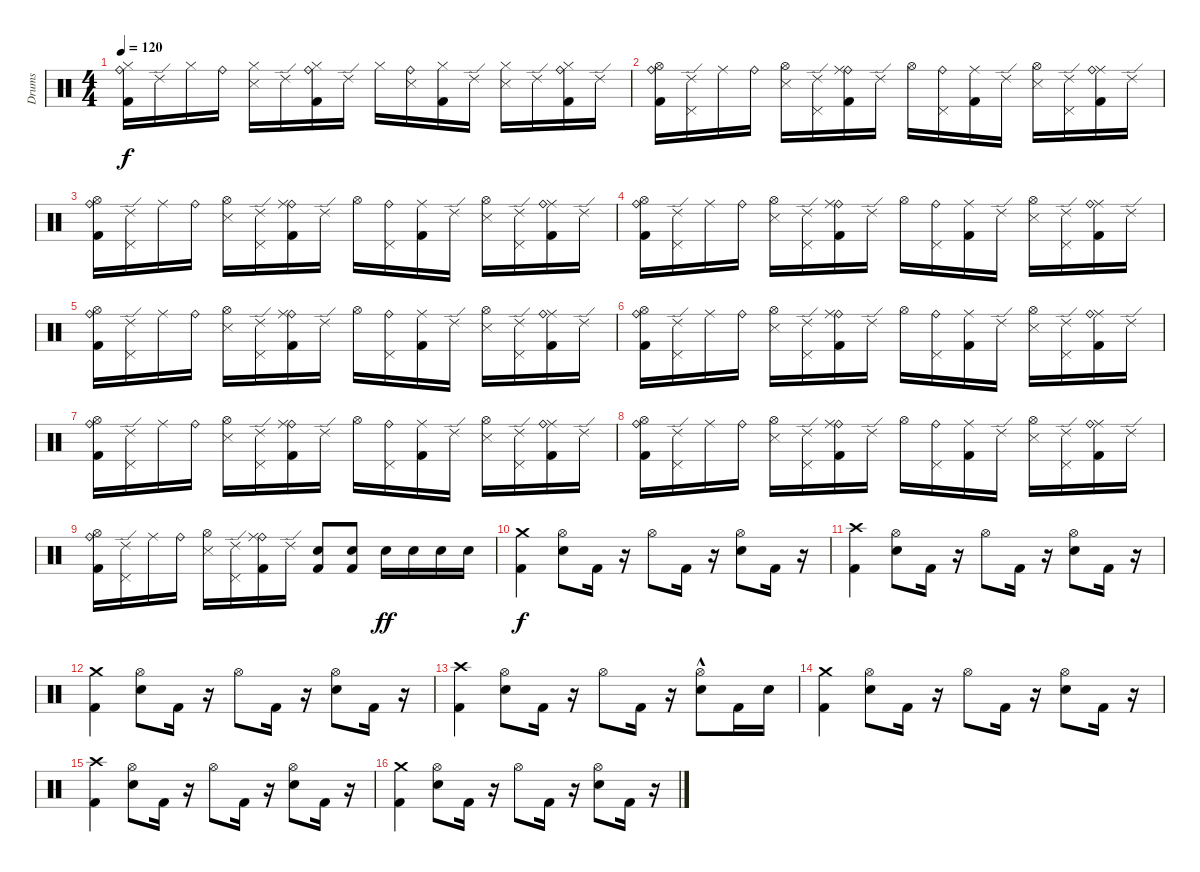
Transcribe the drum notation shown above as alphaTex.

\track ("Drums" "Drums") {instrument percussion}
\staff {score}
\articulation defaults
\ts (4 4)
\tempo 120
\clef neutral
\ks c
("Kick (hit) 2" "Ride (bell)" "Hi-Hat (closed)").16{dy f} "Ride (edge) 2".16 "Hi-Hat (closed)".16 "Ride (bell)".16 ("Snare (side stick) 3" "Hi-Hat (closed)").16 "Ride (edge) 2".16 ("Kick (hit) 2" "Ride (bell)" "Hi-Hat (closed)").16 "Ride (edge) 2".16 "Hi-Hat (closed)".16 ("Snare (side stick) 3" "Ride (bell)").16 ("Kick (hit) 2" "Hi-Hat (closed)").16 "Ride (edge) 2".16 ("Snare (side stick) 3" "Hi-Hat (closed)").16 "Ride (edge) 2".16 ("Kick (hit) 2" "Hi-Hat (closed)" "Ride (bell)").16 "Ride (edge) 2".16 |
("Kick (hit) 2" "Ride (bell)" "Hi-Hat (open)").16 ("Pedal Hi-Hat (hit)" "Ride (edge) 2").16 "Ride (middle)".16 "Ride (bell)".16 ("Snare (side stick) 3" "Hi-Hat (open)").16 ("Pedal Hi-Hat (hit)" "Ride (edge) 2").16 ("Kick (hit) 2" "Ride (bell)" "Ride (middle)").16 "Ride (edge) 2".16 "Hi-Hat (open)".16 ("Pedal Hi-Hat (hit)" "Ride (bell)").16 ("Kick (hit) 2" "Ride (middle)").16 "Ride (edge) 2".16 ("Snare (side stick) 3" "Hi-Hat (open)").16 ("Pedal Hi-Hat (hit)" "Ride (edge) 2").16 ("Kick (hit) 2" "Ride (middle)" "Ride (bell)").16 "Ride (edge) 2".16 |
("Kick (hit) 2" "Ride (bell)" "Hi-Hat (open)").16 ("Pedal Hi-Hat (hit)" "Ride (edge) 2").16 "Ride (middle)".16 "Ride (bell)".16 ("Snare (side stick) 3" "Hi-Hat (open)").16 ("Pedal Hi-Hat (hit)" "Ride (edge) 2").16 ("Kick (hit) 2" "Ride (bell)" "Ride (middle)").16 "Ride (edge) 2".16 "Hi-Hat (open)".16 ("Pedal Hi-Hat (hit)" "Ride (bell)").16 ("Kick (hit) 2" "Ride (middle)").16 "Ride (edge) 2".16 ("Snare (side stick) 3" "Hi-Hat (open)").16 ("Pedal Hi-Hat (hit)" "Ride (edge) 2").16 ("Kick (hit) 2" "Ride (middle)" "Ride (bell)").16 "Ride (edge) 2".16 |
("Kick (hit) 2" "Ride (bell)" "Hi-Hat (open)").16 ("Pedal Hi-Hat (hit)" "Ride (edge) 2").16 "Ride (middle)".16 "Ride (bell)".16 ("Snare (side stick) 3" "Hi-Hat (open)").16 ("Pedal Hi-Hat (hit)" "Ride (edge) 2").16 ("Kick (hit) 2" "Ride (bell)" "Ride (middle)").16 "Ride (edge) 2".16 "Hi-Hat (open)".16 ("Pedal Hi-Hat (hit)" "Ride (bell)").16 ("Kick (hit) 2" "Ride (middle)").16 "Ride (edge) 2".16 ("Snare (side stick) 3" "Hi-Hat (open)").16 ("Pedal Hi-Hat (hit)" "Ride (edge) 2").16 ("Kick (hit) 2" "Ride (middle)" "Ride (bell)").16 "Ride (edge) 2".16 |
("Kick (hit) 2" "Ride (bell)" "Hi-Hat (open)").16 ("Pedal Hi-Hat (hit)" "Ride (edge) 2").16 "Ride (middle)".16 "Ride (bell)".16 ("Snare (side stick) 3" "Hi-Hat (open)").16 ("Pedal Hi-Hat (hit)" "Ride (edge) 2").16 ("Kick (hit) 2" "Ride (bell)" "Ride (middle)").16 "Ride (edge) 2".16 "Hi-Hat (open)".16 ("Pedal Hi-Hat (hit)" "Ride (bell)").16 ("Kick (hit) 2" "Ride (middle)").16 "Ride (edge) 2".16 ("Snare (side stick) 3" "Hi-Hat (open)").16 ("Pedal Hi-Hat (hit)" "Ride (edge) 2").16 ("Kick (hit) 2" "Ride (middle)" "Ride (bell)").16 "Ride (edge) 2".16 |
("Kick (hit) 2" "Ride (bell)" "Hi-Hat (open)").16 ("Pedal Hi-Hat (hit)" "Ride (edge) 2").16 "Ride (middle)".16 "Ride (bell)".16 ("Snare (side stick) 3" "Hi-Hat (open)").16 ("Pedal Hi-Hat (hit)" "Ride (edge) 2").16 ("Kick (hit) 2" "Ride (bell)" "Ride (middle)").16 "Ride (edge) 2".16 "Hi-Hat (open)".16 ("Pedal Hi-Hat (hit)" "Ride (bell)").16 ("Kick (hit) 2" "Ride (middle)").16 "Ride (edge) 2".16 ("Snare (side stick) 3" "Hi-Hat (open)").16 ("Pedal Hi-Hat (hit)" "Ride (edge) 2").16 ("Kick (hit) 2" "Ride (middle)" "Ride (bell)").16 "Ride (edge) 2".16 |
("Kick (hit) 2" "Ride (bell)" "Hi-Hat (open)").16 ("Pedal Hi-Hat (hit)" "Ride (edge) 2").16 "Ride (middle)".16 "Ride (bell)".16 ("Snare (side stick) 3" "Hi-Hat (open)").16 ("Pedal Hi-Hat (hit)" "Ride (edge) 2").16 ("Kick (hit) 2" "Ride (bell)" "Ride (middle)").16 "Ride (edge) 2".16 "Hi-Hat (open)".16 ("Pedal Hi-Hat (hit)" "Ride (bell)").16 ("Kick (hit) 2" "Ride (middle)").16 "Ride (edge) 2".16 ("Snare (side stick) 3" "Hi-Hat (open)").16 ("Pedal Hi-Hat (hit)" "Ride (edge) 2").16 ("Kick (hit) 2" "Ride (middle)" "Ride (bell)").16 "Ride (edge) 2".16 |
("Kick (hit) 2" "Ride (bell)" "Hi-Hat (open)").16 ("Pedal Hi-Hat (hit)" "Ride (edge) 2").16 "Ride (middle)".16 "Ride (bell)".16 ("Snare (side stick) 3" "Hi-Hat (open)").16 ("Pedal Hi-Hat (hit)" "Ride (edge) 2").16 ("Kick (hit) 2" "Ride (bell)" "Ride (middle)").16 "Ride (edge) 2".16 "Hi-Hat (open)".16 ("Pedal Hi-Hat (hit)" "Ride (bell)").16 ("Kick (hit) 2" "Ride (middle)").16 "Ride (edge) 2".16 ("Snare (side stick) 3" "Hi-Hat (open)").16 ("Pedal Hi-Hat (hit)" "Ride (edge) 2").16 ("Kick (hit) 2" "Ride (middle)" "Ride (bell)").16 "Ride (edge) 2".16 |
("Kick (hit) 2" "Ride (bell)" "Hi-Hat (open)").16 ("Pedal Hi-Hat (hit)" "Ride (edge) 2").16 "Ride (middle)".16 "Ride (bell)".16 ("Snare (side stick) 3" "Hi-Hat (open)").16 ("Pedal Hi-Hat (hit)" "Ride (edge) 2").16 ("Kick (hit) 2" "Ride (bell)" "Ride (middle)").16 "Ride (edge) 2".16 ("Kick (hit) 2" "Electric Snare (hit)").8 ("Kick (hit) 2" "Electric Snare (hit)").8 "Electric Snare (hit)".16{dy ff} "Electric Snare (hit)".16 "Electric Snare (hit)".16 "Electric Snare (hit)".16 |
("Crash medium (hit)" "Kick (hit) 2").4{dy f} ("Hi-Hat (open)" "Electric Snare (hit)").8 "Kick (hit) 2".16 r.16 "Hi-Hat (open)".8 "Kick (hit) 2".16 r.16 ("Hi-Hat (open)" "Electric Snare (hit)").8 "Kick (hit) 2".16 r.16 |
("Crash high (hit)" "Kick (hit) 2").4 ("Hi-Hat (open)" "Electric Snare (hit)").8 "Kick (hit) 2".16 r.16 "Hi-Hat (open)".8 "Kick (hit) 2".16 r.16 ("Hi-Hat (open)" "Electric Snare (hit)").8 "Kick (hit) 2".16 r.16 |
("Crash medium (hit)" "Kick (hit) 2").4 ("Hi-Hat (open)" "Electric Snare (hit)").8 "Kick (hit) 2".16 r.16 "Hi-Hat (open)".8 "Kick (hit) 2".16 r.16 ("Hi-Hat (open)" "Electric Snare (hit)").8 "Kick (hit) 2".16 r.16 |
("Crash high (hit)" "Kick (hit) 2").4 ("Hi-Hat (open)" "Electric Snare (hit)").8 "Kick (hit) 2".16 r.16 "Hi-Hat (open)".8 "Kick (hit) 2".16 r.16 ("Electric Snare (hit)"{hac} "Hi-Hat (open)").8 "Kick (hit) 2".16 "Electric Snare (hit)".16 |
("Kick (hit) 2" "Crash medium (hit)").4 ("Electric Snare (hit)" "Hi-Hat (open)").8 "Kick (hit) 2".16 r.16 "Hi-Hat (open)".8 "Kick (hit) 2".16 r.16 ("Electric Snare (hit)" "Hi-Hat (open)").8 "Kick (hit) 2".16 r.16 |
("Crash high (hit)" "Kick (hit) 2").4 ("Electric Snare (hit)" "Hi-Hat (open)").8 "Kick (hit) 2".16 r.16 "Hi-Hat (open)".8 "Kick (hit) 2".16 r.16 ("Electric Snare (hit)" "Hi-Hat (open)").8 "Kick (hit) 2".16 r.16 |
("Kick (hit) 2" "Crash medium (hit)").4 ("Electric Snare (hit)" "Hi-Hat (open)").8 "Kick (hit) 2".16 r.16 "Hi-Hat (open)".8 "Kick (hit) 2".16 r.16 ("Electric Snare (hit)" "Hi-Hat (open)").8 "Kick (hit) 2".16 r.16
